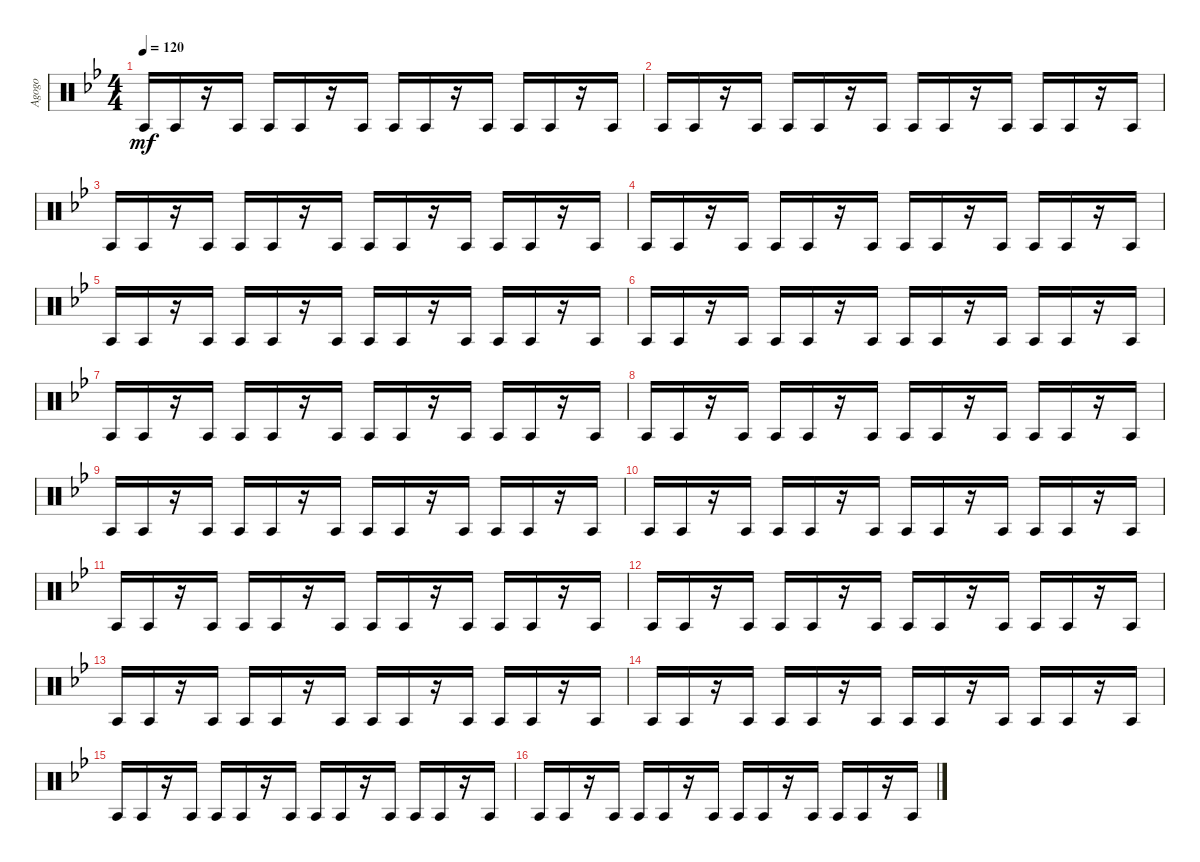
\track ("Agogo" "Agogo") {instrument percussion}
\staff {score}
\articulation defaults
\ts (4 4)
\tempo 120
\clef neutral
\ks bb "Agogo tow (hit)".16{dy mf} "Agogo tow (hit)".16
r.16 "Agogo tow (hit)".16 "Agogo tow (hit)".16 "Agogo tow (hit)".16 r.16 "Agogo tow (hit)".16 "Agogo tow (hit)".16 "Agogo tow (hit)".16 r.16 "Agogo tow (hit)".16 "Agogo tow (hit)".16 "Agogo tow (hit)".16 r.16 "Agogo tow (hit)".16 |
"Agogo tow (hit)".16 "Agogo tow (hit)".16 r.16 "Agogo tow (hit)".16 "Agogo tow (hit)".16 "Agogo tow (hit)".16 r.16 "Agogo tow (hit)".16 "Agogo tow (hit)".16 "Agogo tow (hit)".16 r.16 "Agogo tow (hit)".16 "Agogo tow (hit)".16 "Agogo tow (hit)".16 r.16 "Agogo tow (hit)".16 |
"Agogo tow (hit)".16 "Agogo tow (hit)".16 r.16 "Agogo tow (hit)".16 "Agogo tow (hit)".16 "Agogo tow (hit)".16 r.16 "Agogo tow (hit)".16 "Agogo tow (hit)".16 "Agogo tow (hit)".16 r.16 "Agogo tow (hit)".16 "Agogo tow (hit)".16 "Agogo tow (hit)".16 r.16 "Agogo tow (hit)".16 |
"Agogo tow (hit)".16 "Agogo tow (hit)".16 r.16 "Agogo tow (hit)".16 "Agogo tow (hit)".16 "Agogo tow (hit)".16 r.16 "Agogo tow (hit)".16 "Agogo tow (hit)".16 "Agogo tow (hit)".16 r.16 "Agogo tow (hit)".16 "Agogo tow (hit)".16 "Agogo tow (hit)".16 r.16 "Agogo tow (hit)".16 |
"Agogo tow (hit)".16 "Agogo tow (hit)".16 r.16 "Agogo tow (hit)".16 "Agogo tow (hit)".16 "Agogo tow (hit)".16 r.16 "Agogo tow (hit)".16 "Agogo tow (hit)".16 "Agogo tow (hit)".16 r.16 "Agogo tow (hit)".16 "Agogo tow (hit)".16 "Agogo tow (hit)".16 r.16 "Agogo tow (hit)".16 |
"Agogo tow (hit)".16 "Agogo tow (hit)".16 r.16 "Agogo tow (hit)".16 "Agogo tow (hit)".16 "Agogo tow (hit)".16 r.16 "Agogo tow (hit)".16 "Agogo tow (hit)".16 "Agogo tow (hit)".16 r.16 "Agogo tow (hit)".16 "Agogo tow (hit)".16 "Agogo tow (hit)".16 r.16 "Agogo tow (hit)".16 |
"Agogo tow (hit)".16 "Agogo tow (hit)".16 r.16 "Agogo tow (hit)".16 "Agogo tow (hit)".16 "Agogo tow (hit)".16 r.16 "Agogo tow (hit)".16 "Agogo tow (hit)".16 "Agogo tow (hit)".16 r.16 "Agogo tow (hit)".16 "Agogo tow (hit)".16 "Agogo tow (hit)".16 r.16 "Agogo tow (hit)".16 |
"Agogo tow (hit)".16 "Agogo tow (hit)".16 r.16 "Agogo tow (hit)".16 "Agogo tow (hit)".16 "Agogo tow (hit)".16 r.16 "Agogo tow (hit)".16 "Agogo tow (hit)".16 "Agogo tow (hit)".16 r.16 "Agogo tow (hit)".16 "Agogo tow (hit)".16 "Agogo tow (hit)".16 r.16 "Agogo tow (hit)".16 |
"Agogo tow (hit)".16 "Agogo tow (hit)".16 r.16 "Agogo tow (hit)".16 "Agogo tow (hit)".16 "Agogo tow (hit)".16 r.16 "Agogo tow (hit)".16 "Agogo tow (hit)".16 "Agogo tow (hit)".16 r.16 "Agogo tow (hit)".16 "Agogo tow (hit)".16 "Agogo tow (hit)".16 r.16 "Agogo tow (hit)".16 |
"Agogo tow (hit)".16 "Agogo tow (hit)".16 r.16 "Agogo tow (hit)".16 "Agogo tow (hit)".16 "Agogo tow (hit)".16 r.16 "Agogo tow (hit)".16 "Agogo tow (hit)".16 "Agogo tow (hit)".16 r.16 "Agogo tow (hit)".16 "Agogo tow (hit)".16 "Agogo tow (hit)".16 r.16 "Agogo tow (hit)".16 |
"Agogo tow (hit)".16 "Agogo tow (hit)".16 r.16 "Agogo tow (hit)".16 "Agogo tow (hit)".16 "Agogo tow (hit)".16 r.16 "Agogo tow (hit)".16 "Agogo tow (hit)".16 "Agogo tow (hit)".16 r.16 "Agogo tow (hit)".16 "Agogo tow (hit)".16 "Agogo tow (hit)".16 r.16 "Agogo tow (hit)".16 |
"Agogo tow (hit)".16 "Agogo tow (hit)".16 r.16 "Agogo tow (hit)".16 "Agogo tow (hit)".16 "Agogo tow (hit)".16 r.16 "Agogo tow (hit)".16 "Agogo tow (hit)".16 "Agogo tow (hit)".16 r.16 "Agogo tow (hit)".16 "Agogo tow (hit)".16 "Agogo tow (hit)".16 r.16 "Agogo tow (hit)".16 |
"Agogo tow (hit)".16 "Agogo tow (hit)".16 r.16 "Agogo tow (hit)".16 "Agogo tow (hit)".16 "Agogo tow (hit)".16 r.16 "Agogo tow (hit)".16 "Agogo tow (hit)".16 "Agogo tow (hit)".16 r.16 "Agogo tow (hit)".16 "Agogo tow (hit)".16 "Agogo tow (hit)".16 r.16 "Agogo tow (hit)".16 |
"Agogo tow (hit)".16 "Agogo tow (hit)".16 r.16 "Agogo tow (hit)".16 "Agogo tow (hit)".16 "Agogo tow (hit)".16 r.16 "Agogo tow (hit)".16 "Agogo tow (hit)".16 "Agogo tow (hit)".16 r.16 "Agogo tow (hit)".16 "Agogo tow (hit)".16 "Agogo tow (hit)".16 r.16 "Agogo tow (hit)".16 |
"Agogo tow (hit)".16 "Agogo tow (hit)".16 r.16 "Agogo tow (hit)".16 "Agogo tow (hit)".16 "Agogo tow (hit)".16 r.16 "Agogo tow (hit)".16 "Agogo tow (hit)".16 "Agogo tow (hit)".16 r.16 "Agogo tow (hit)".16 "Agogo tow (hit)".16 "Agogo tow (hit)".16 r.16 "Agogo tow (hit)".16 |
"Agogo tow (hit)".16 "Agogo tow (hit)".16 r.16 "Agogo tow (hit)".16 "Agogo tow (hit)".16 "Agogo tow (hit)".16 r.16 "Agogo tow (hit)".16 "Agogo tow (hit)".16 "Agogo tow (hit)".16 r.16 "Agogo tow (hit)".16 "Agogo tow (hit)".16 "Agogo tow (hit)".16 r.16 "Agogo tow (hit)".16
